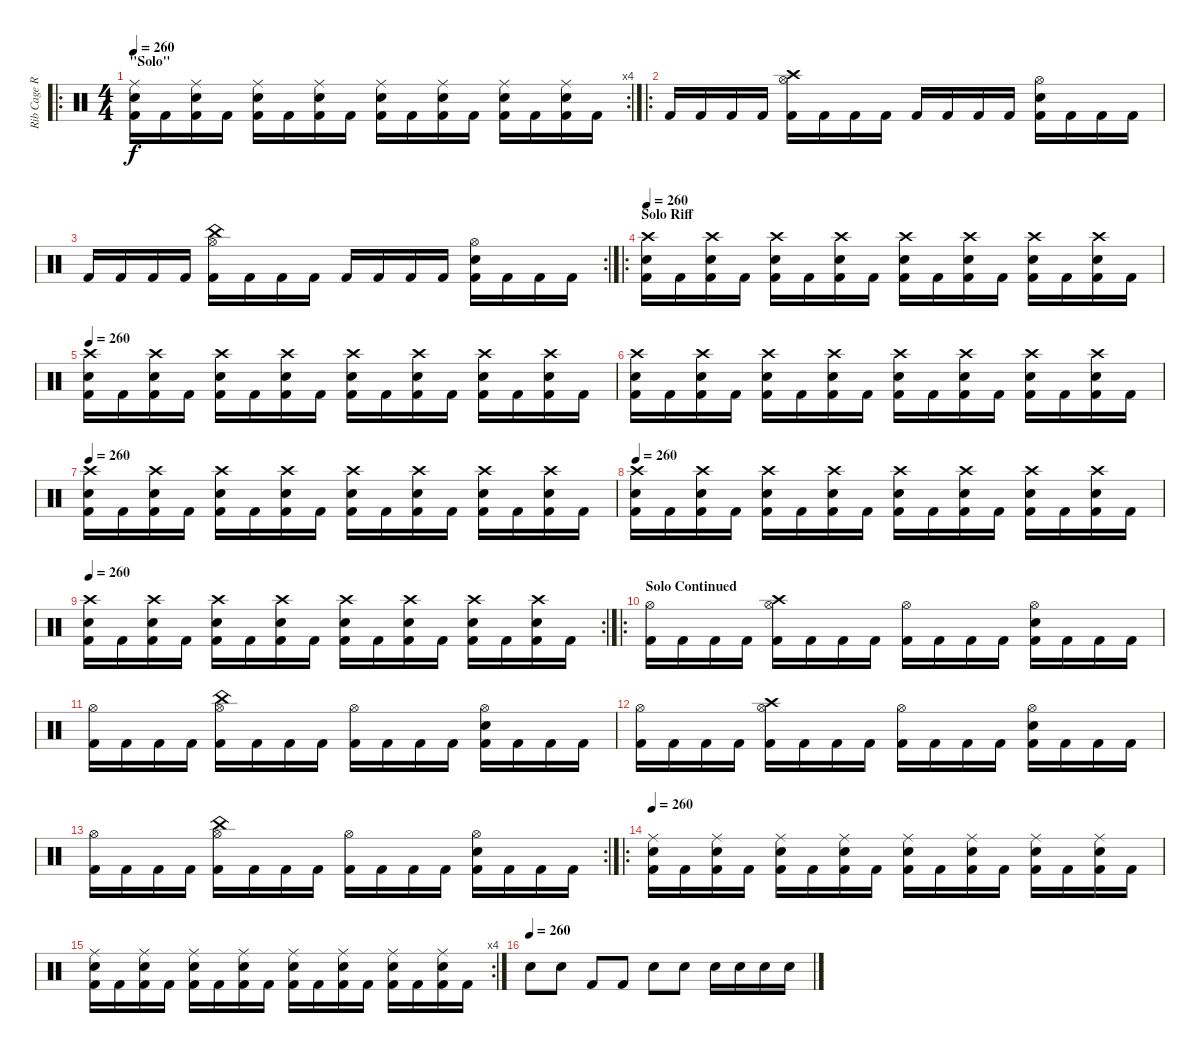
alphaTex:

\track ("Rib Cage Rupturing God Stomping Cremator" "Rib Cage R") {instrument percussion}
\staff {score}
\articulation defaults
\ro
\rc 4
\ts (4 4)
\section ("" "\"Solo\"")
\tempo 260
\clef neutral
\ks c
("Ride (middle)" "Electric Snare (hit)" "Kick (hit) 2").16{dy f} "Kick (hit) 2".16 ("Ride (middle)" "Electric Snare (hit)" "Kick (hit) 2").16 "Kick (hit) 2".16 ("Ride (middle)" "Electric Snare (hit)" "Kick (hit) 2").16 "Kick (hit) 2".16 ("Ride (middle)" "Electric Snare (hit)" "Kick (hit) 2").16 "Kick (hit) 2".16 ("Ride (middle)" "Electric Snare (hit)" "Kick (hit) 2").16 "Kick (hit) 2".16 ("Ride (middle)" "Electric Snare (hit)" "Kick (hit) 2").16 "Kick (hit) 2".16 ("Ride (middle)" "Electric Snare (hit)" "Kick (hit) 2").16 "Kick (hit) 2".16 ("Ride (middle)" "Electric Snare (hit)" "Kick (hit) 2").16 "Kick (hit) 2".16 |
\ro "Kick (hit) 2".16 "Kick (hit) 2".16 "Kick (hit) 2".16 "Kick (hit) 2".16
("Crash high (hit)" "Hi-Hat (open)" "Kick (hit) 2").16 "Kick (hit) 2".16 "Kick (hit) 2".16 "Kick (hit) 2".16 "Kick (hit) 2".16 "Kick (hit) 2".16 "Kick (hit) 2".16 "Kick (hit) 2".16 ("Hi-Hat (open)" "Electric Snare (hit)" "Kick (hit) 2").16 "Kick (hit) 2".16 "Kick (hit) 2".16 "Kick (hit) 2".16 |
\rc 2 "Kick (hit) 2".16 "Kick (hit) 2".16 "Kick (hit) 2".16 "Kick (hit) 2".16
("China (hit)" "Hi-Hat (open)" "Kick (hit) 2").16 "Kick (hit) 2".16 "Kick (hit) 2".16 "Kick (hit) 2".16 "Kick (hit) 2".16 "Kick (hit) 2".16 "Kick (hit) 2".16 "Kick (hit) 2".16 ("Hi-Hat (open)" "Electric Snare (hit)" "Kick (hit) 2").16 "Kick (hit) 2".16 "Kick (hit) 2".16 "Kick (hit) 2".16 |
\ro
\section ("" "Solo Riff")
\tempo 260
("Crash high (hit)" "Electric Snare (hit)" "Kick (hit) 2").16 "Kick (hit) 2".16 ("Crash high (hit)" "Electric Snare (hit)" "Kick (hit) 2").16 "Kick (hit) 2".16 ("Crash high (hit)" "Electric Snare (hit)" "Kick (hit) 2").16 "Kick (hit) 2".16 ("Crash high (hit)" "Electric Snare (hit)" "Kick (hit) 2").16 "Kick (hit) 2".16 ("Crash high (hit)" "Electric Snare (hit)" "Kick (hit) 2").16 "Kick (hit) 2".16 ("Crash high (hit)" "Electric Snare (hit)" "Kick (hit) 2").16 "Kick (hit) 2".16 ("Crash high (hit)" "Electric Snare (hit)" "Kick (hit) 2").16 "Kick (hit) 2".16 ("Crash high (hit)" "Electric Snare (hit)" "Kick (hit) 2").16 "Kick (hit) 2".16 |
\tempo 260
("Crash high (hit)" "Electric Snare (hit)" "Kick (hit) 2").16 "Kick (hit) 2".16 ("Crash high (hit)" "Electric Snare (hit)" "Kick (hit) 2").16 "Kick (hit) 2".16 ("Crash high (hit)" "Electric Snare (hit)" "Kick (hit) 2").16 "Kick (hit) 2".16 ("Crash high (hit)" "Electric Snare (hit)" "Kick (hit) 2").16 "Kick (hit) 2".16 ("Crash high (hit)" "Electric Snare (hit)" "Kick (hit) 2").16 "Kick (hit) 2".16 ("Crash high (hit)" "Electric Snare (hit)" "Kick (hit) 2").16 "Kick (hit) 2".16 ("Crash high (hit)" "Electric Snare (hit)" "Kick (hit) 2").16 "Kick (hit) 2".16 ("Crash high (hit)" "Electric Snare (hit)" "Kick (hit) 2").16 "Kick (hit) 2".16 |
("Crash high (hit)" "Electric Snare (hit)" "Kick (hit) 2").16 "Kick (hit) 2".16 ("Crash high (hit)" "Electric Snare (hit)" "Kick (hit) 2").16 "Kick (hit) 2".16 ("Crash high (hit)" "Electric Snare (hit)" "Kick (hit) 2").16 "Kick (hit) 2".16 ("Crash high (hit)" "Electric Snare (hit)" "Kick (hit) 2").16 "Kick (hit) 2".16 ("Crash high (hit)" "Electric Snare (hit)" "Kick (hit) 2").16 "Kick (hit) 2".16 ("Crash high (hit)" "Electric Snare (hit)" "Kick (hit) 2").16 "Kick (hit) 2".16 ("Crash high (hit)" "Electric Snare (hit)" "Kick (hit) 2").16 "Kick (hit) 2".16 ("Crash high (hit)" "Electric Snare (hit)" "Kick (hit) 2").16 "Kick (hit) 2".16 |
\tempo 260
("Crash high (hit)" "Electric Snare (hit)" "Kick (hit) 2").16 "Kick (hit) 2".16 ("Crash high (hit)" "Electric Snare (hit)" "Kick (hit) 2").16 "Kick (hit) 2".16 ("Crash high (hit)" "Electric Snare (hit)" "Kick (hit) 2").16 "Kick (hit) 2".16 ("Crash high (hit)" "Electric Snare (hit)" "Kick (hit) 2").16 "Kick (hit) 2".16 ("Crash high (hit)" "Electric Snare (hit)" "Kick (hit) 2").16 "Kick (hit) 2".16 ("Crash high (hit)" "Electric Snare (hit)" "Kick (hit) 2").16 "Kick (hit) 2".16 ("Crash high (hit)" "Electric Snare (hit)" "Kick (hit) 2").16 "Kick (hit) 2".16 ("Crash high (hit)" "Electric Snare (hit)" "Kick (hit) 2").16 "Kick (hit) 2".16 |
\tempo 260
("Crash high (hit)" "Electric Snare (hit)" "Kick (hit) 2").16 "Kick (hit) 2".16 ("Crash high (hit)" "Electric Snare (hit)" "Kick (hit) 2").16 "Kick (hit) 2".16 ("Crash high (hit)" "Electric Snare (hit)" "Kick (hit) 2").16 "Kick (hit) 2".16 ("Crash high (hit)" "Electric Snare (hit)" "Kick (hit) 2").16 "Kick (hit) 2".16 ("Crash high (hit)" "Electric Snare (hit)" "Kick (hit) 2").16 "Kick (hit) 2".16 ("Crash high (hit)" "Electric Snare (hit)" "Kick (hit) 2").16 "Kick (hit) 2".16 ("Crash high (hit)" "Electric Snare (hit)" "Kick (hit) 2").16 "Kick (hit) 2".16 ("Crash high (hit)" "Electric Snare (hit)" "Kick (hit) 2").16 "Kick (hit) 2".16 |
\rc 2
\tempo 260
("Crash high (hit)" "Electric Snare (hit)" "Kick (hit) 2").16 "Kick (hit) 2".16 ("Crash high (hit)" "Electric Snare (hit)" "Kick (hit) 2").16 "Kick (hit) 2".16 ("Crash high (hit)" "Electric Snare (hit)" "Kick (hit) 2").16 "Kick (hit) 2".16 ("Crash high (hit)" "Electric Snare (hit)" "Kick (hit) 2").16 "Kick (hit) 2".16 ("Crash high (hit)" "Electric Snare (hit)" "Kick (hit) 2").16 "Kick (hit) 2".16 ("Crash high (hit)" "Electric Snare (hit)" "Kick (hit) 2").16 "Kick (hit) 2".16 ("Crash high (hit)" "Electric Snare (hit)" "Kick (hit) 2").16 "Kick (hit) 2".16 ("Crash high (hit)" "Electric Snare (hit)" "Kick (hit) 2").16 "Kick (hit) 2".16 |
\ro
\section ("" "Solo Continued")
("Hi-Hat (open)" "Kick (hit) 2").16 "Kick (hit) 2".16 "Kick (hit) 2".16 "Kick (hit) 2".16 ("Crash high (hit)" "Hi-Hat (open)" "Kick (hit) 2").16 "Kick (hit) 2".16 "Kick (hit) 2".16 "Kick (hit) 2".16 ("Hi-Hat (open)" "Kick (hit) 2").16 "Kick (hit) 2".16 "Kick (hit) 2".16 "Kick (hit) 2".16 ("Hi-Hat (open)" "Electric Snare (hit)" "Kick (hit) 2").16 "Kick (hit) 2".16 "Kick (hit) 2".16 "Kick (hit) 2".16 |
("Hi-Hat (open)" "Kick (hit) 2").16 "Kick (hit) 2".16 "Kick (hit) 2".16 "Kick (hit) 2".16 ("China (hit)" "Hi-Hat (open)" "Kick (hit) 2").16 "Kick (hit) 2".16 "Kick (hit) 2".16 "Kick (hit) 2".16 ("Hi-Hat (open)" "Kick (hit) 2").16 "Kick (hit) 2".16 "Kick (hit) 2".16 "Kick (hit) 2".16 ("Hi-Hat (open)" "Electric Snare (hit)" "Kick (hit) 2").16 "Kick (hit) 2".16 "Kick (hit) 2".16 "Kick (hit) 2".16 |
("Hi-Hat (open)" "Kick (hit) 2").16 "Kick (hit) 2".16 "Kick (hit) 2".16 "Kick (hit) 2".16 ("Crash high (hit)" "Hi-Hat (open)" "Kick (hit) 2").16 "Kick (hit) 2".16 "Kick (hit) 2".16 "Kick (hit) 2".16 ("Hi-Hat (open)" "Kick (hit) 2").16 "Kick (hit) 2".16 "Kick (hit) 2".16 "Kick (hit) 2".16 ("Hi-Hat (open)" "Electric Snare (hit)" "Kick (hit) 2").16 "Kick (hit) 2".16 "Kick (hit) 2".16 "Kick (hit) 2".16 |
\rc 2
("Hi-Hat (open)" "Kick (hit) 2").16 "Kick (hit) 2".16 "Kick (hit) 2".16 "Kick (hit) 2".16 ("China (hit)" "Hi-Hat (open)" "Kick (hit) 2").16 "Kick (hit) 2".16 "Kick (hit) 2".16 "Kick (hit) 2".16 ("Hi-Hat (open)" "Kick (hit) 2").16 "Kick (hit) 2".16 "Kick (hit) 2".16 "Kick (hit) 2".16 ("Hi-Hat (open)" "Electric Snare (hit)" "Kick (hit) 2").16 "Kick (hit) 2".16 "Kick (hit) 2".16 "Kick (hit) 2".16 |
\ro
\tempo 260
("Ride (middle)" "Electric Snare (hit)" "Kick (hit) 2").16 "Kick (hit) 2".16 ("Ride (middle)" "Electric Snare (hit)" "Kick (hit) 2").16 "Kick (hit) 2".16 ("Ride (middle)" "Electric Snare (hit)" "Kick (hit) 2").16 "Kick (hit) 2".16 ("Ride (middle)" "Electric Snare (hit)" "Kick (hit) 2").16 "Kick (hit) 2".16 ("Ride (middle)" "Electric Snare (hit)" "Kick (hit) 2").16 "Kick (hit) 2".16 ("Ride (middle)" "Electric Snare (hit)" "Kick (hit) 2").16 "Kick (hit) 2".16 ("Ride (middle)" "Electric Snare (hit)" "Kick (hit) 2").16 "Kick (hit) 2".16 ("Ride (middle)" "Electric Snare (hit)" "Kick (hit) 2").16 "Kick (hit) 2".16 |
\rc 4
("Ride (middle)" "Electric Snare (hit)" "Kick (hit) 2").16 "Kick (hit) 2".16 ("Ride (middle)" "Electric Snare (hit)" "Kick (hit) 2").16 "Kick (hit) 2".16 ("Ride (middle)" "Electric Snare (hit)" "Kick (hit) 2").16 "Kick (hit) 2".16 ("Ride (middle)" "Electric Snare (hit)" "Kick (hit) 2").16 "Kick (hit) 2".16 ("Ride (middle)" "Electric Snare (hit)" "Kick (hit) 2").16 "Kick (hit) 2".16 ("Ride (middle)" "Electric Snare (hit)" "Kick (hit) 2").16 "Kick (hit) 2".16 ("Ride (middle)" "Electric Snare (hit)" "Kick (hit) 2").16 "Kick (hit) 2".16 ("Ride (middle)" "Electric Snare (hit)" "Kick (hit) 2").16 "Kick (hit) 2".16 |
\tempo (260)
"Electric Snare (hit)".8 "Electric Snare (hit)".8 "Kick (hit) 2".8 "Kick (hit) 2".8 "Electric Snare (hit)".8 "Electric Snare (hit)".8 "Electric Snare (hit)".16 "Electric Snare (hit)".16 "Electric Snare (hit)".16 "Electric Snare (hit)".16
